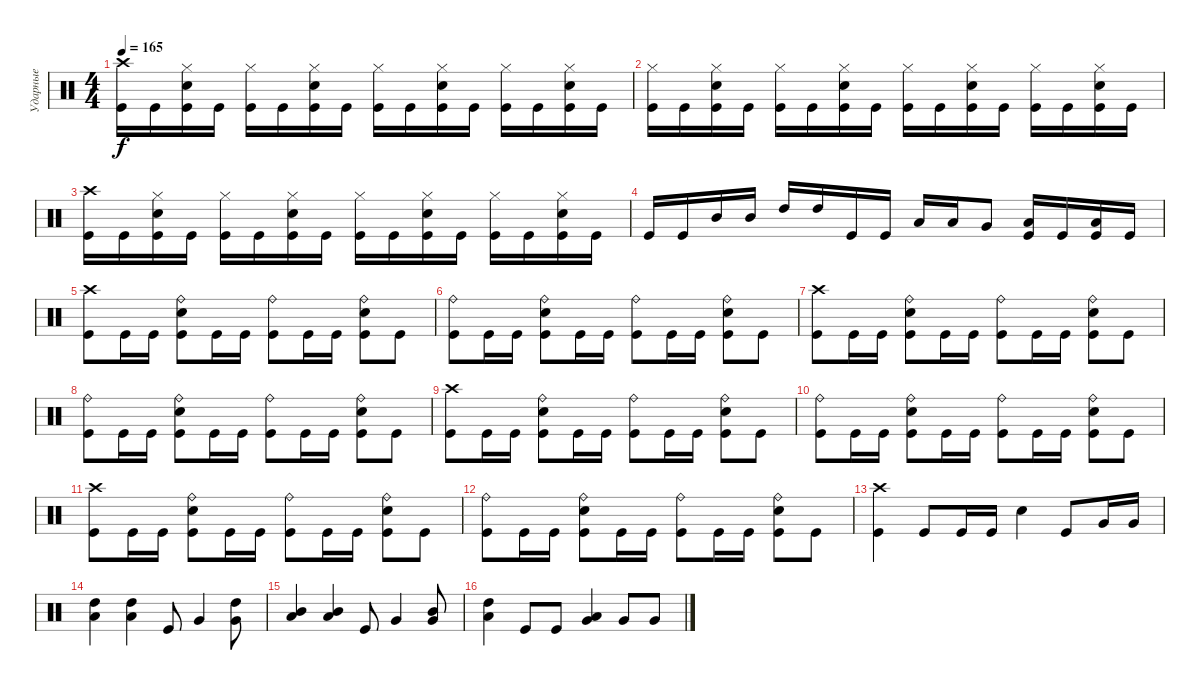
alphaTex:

\track ("Ударные" "Ударные") {instrument percussion}
\staff {score}
\articulation defaults
\ts (4 4)
\tempo 165
\clef neutral
\ks c
("Crash high (hit)" "Kick (hit)").16{dy f} "Kick (hit)".16 ("Hi-Hat (closed)" "Electric Snare (hit)" "Kick (hit)").16 "Kick (hit)".16 ("Hi-Hat (closed)" "Kick (hit)").16 "Kick (hit)".16 ("Hi-Hat (closed)" "Electric Snare (hit)" "Kick (hit)").16 "Kick (hit)".16 ("Hi-Hat (closed)" "Kick (hit)").16 "Kick (hit)".16 ("Hi-Hat (closed)" "Electric Snare (hit)" "Kick (hit)").16 "Kick (hit)".16 ("Hi-Hat (closed)" "Kick (hit)").16 "Kick (hit)".16 ("Hi-Hat (closed)" "Electric Snare (hit)" "Kick (hit)").16 "Kick (hit)".16 |
("Hi-Hat (closed)" "Kick (hit)").16 "Kick (hit)".16 ("Hi-Hat (closed)" "Electric Snare (hit)" "Kick (hit)").16 "Kick (hit)".16 ("Hi-Hat (closed)" "Kick (hit)").16 "Kick (hit)".16 ("Hi-Hat (closed)" "Electric Snare (hit)" "Kick (hit)").16 "Kick (hit)".16 ("Hi-Hat (closed)" "Kick (hit)").16 "Kick (hit)".16 ("Hi-Hat (closed)" "Electric Snare (hit)" "Kick (hit)").16 "Kick (hit)".16 ("Hi-Hat (closed)" "Kick (hit)").16 "Kick (hit)".16 ("Hi-Hat (closed)" "Electric Snare (hit)" "Kick (hit)").16 "Kick (hit)".16 |
("Crash high (hit)" "Kick (hit)").16 "Kick (hit)".16 ("Hi-Hat (closed)" "Electric Snare (hit)" "Kick (hit)").16 "Kick (hit)".16 ("Hi-Hat (closed)" "Kick (hit)").16 "Kick (hit)".16 ("Hi-Hat (closed)" "Electric Snare (hit)" "Kick (hit)").16 "Kick (hit)".16 ("Hi-Hat (closed)" "Kick (hit)").16 "Kick (hit)".16 ("Hi-Hat (closed)" "Electric Snare (hit)" "Kick (hit)").16 "Kick (hit)".16 ("Hi-Hat (closed)" "Kick (hit)").16 "Kick (hit)".16 ("Hi-Hat (closed)" "Electric Snare (hit)" "Kick (hit)").16 "Kick (hit)".16 |
"Kick (hit)".16 "Kick (hit)".16 "Mid Tom (hit)".16 "Mid Tom (hit)".16 "High Tom (hit)".16 "High Tom (hit)".16 "Kick (hit)".16 "Kick (hit)".16 "Low Tom (hit)".16 "Low Tom (hit)".16 "Very Low Tom (hit)".8 ("Low Tom (hit)" "Kick (hit)").16 "Kick (hit)".16 ("Low Tom (hit)" "Kick (hit)").16 "Kick (hit)".16 |
("Crash high (hit)" "Kick (hit)").8 "Kick (hit)".16 "Kick (hit)".16 ("Ride (bell)" "Electric Snare (hit)" "Kick (hit)").8 "Kick (hit)".16 "Kick (hit)".16 ("Ride (bell)" "Kick (hit)").8 "Kick (hit)".16 "Kick (hit)".16 ("Ride (bell)" "Electric Snare (hit)" "Kick (hit)").8 "Kick (hit)".8 |
("Ride (bell)" "Kick (hit)").8 "Kick (hit)".16 "Kick (hit)".16 ("Ride (bell)" "Electric Snare (hit)" "Kick (hit)").8 "Kick (hit)".16 "Kick (hit)".16 ("Ride (bell)" "Kick (hit)").8 "Kick (hit)".16 "Kick (hit)".16 ("Ride (bell)" "Electric Snare (hit)" "Kick (hit)").8 "Kick (hit)".8 |
("Crash high (hit)" "Kick (hit)").8 "Kick (hit)".16 "Kick (hit)".16 ("Ride (bell)" "Electric Snare (hit)" "Kick (hit)").8 "Kick (hit)".16 "Kick (hit)".16 ("Ride (bell)" "Kick (hit)").8 "Kick (hit)".16 "Kick (hit)".16 ("Ride (bell)" "Electric Snare (hit)" "Kick (hit)").8 "Kick (hit)".8 |
("Ride (bell)" "Kick (hit)").8 "Kick (hit)".16 "Kick (hit)".16 ("Ride (bell)" "Electric Snare (hit)" "Kick (hit)").8 "Kick (hit)".16 "Kick (hit)".16 ("Ride (bell)" "Kick (hit)").8 "Kick (hit)".16 "Kick (hit)".16 ("Ride (bell)" "Electric Snare (hit)" "Kick (hit)").8 "Kick (hit)".8 |
("Crash high (hit)" "Kick (hit)").8 "Kick (hit)".16 "Kick (hit)".16 ("Ride (bell)" "Electric Snare (hit)" "Kick (hit)").8 "Kick (hit)".16 "Kick (hit)".16 ("Ride (bell)" "Kick (hit)").8 "Kick (hit)".16 "Kick (hit)".16 ("Ride (bell)" "Electric Snare (hit)" "Kick (hit)").8 "Kick (hit)".8 |
("Ride (bell)" "Kick (hit)").8 "Kick (hit)".16 "Kick (hit)".16 ("Ride (bell)" "Electric Snare (hit)" "Kick (hit)").8 "Kick (hit)".16 "Kick (hit)".16 ("Ride (bell)" "Kick (hit)").8 "Kick (hit)".16 "Kick (hit)".16 ("Ride (bell)" "Electric Snare (hit)" "Kick (hit)").8 "Kick (hit)".8 |
("Crash high (hit)" "Kick (hit)").8 "Kick (hit)".16 "Kick (hit)".16 ("Ride (bell)" "Electric Snare (hit)" "Kick (hit)").8 "Kick (hit)".16 "Kick (hit)".16 ("Ride (bell)" "Kick (hit)").8 "Kick (hit)".16 "Kick (hit)".16 ("Ride (bell)" "Electric Snare (hit)" "Kick (hit)").8 "Kick (hit)".8 |
("Ride (bell)" "Kick (hit)").8 "Kick (hit)".16 "Kick (hit)".16 ("Ride (bell)" "Electric Snare (hit)" "Kick (hit)").8 "Kick (hit)".16 "Kick (hit)".16 ("Ride (bell)" "Kick (hit)").8 "Kick (hit)".16 "Kick (hit)".16 ("Ride (bell)" "Electric Snare (hit)" "Kick (hit)").8 "Kick (hit)".8 |
("Crash high (hit)" "Kick (hit)").4 "Kick (hit)".8 "Kick (hit)".16 "Kick (hit)".16 "Electric Snare (hit)".4 "Kick (hit)".8 "Very Low Tom (hit)".16 "Very Low Tom (hit)".16 |
("High Tom (hit)" "Low Tom (hit)").4 ("High Tom (hit)" "Low Tom (hit)").4 "Kick (hit)".8 "Very Low Tom (hit)".4 ("High Tom (hit)" "Very Low Tom (hit)").8 |
("Mid Tom (hit)" "Low Tom (hit)").4 ("Mid Tom (hit)" "Low Tom (hit)").4 "Kick (hit)".8 "Very Low Tom (hit)".4 ("Mid Tom (hit)" "Very Low Tom (hit)").8 |
("High Tom (hit)" "Low Tom (hit)").4 "Kick (hit)".8 "Kick (hit)".8 ("Low Tom (hit)" "Very Low Tom (hit)").4 "Very Low Tom (hit)".8 "Very Low Tom (hit)".8
